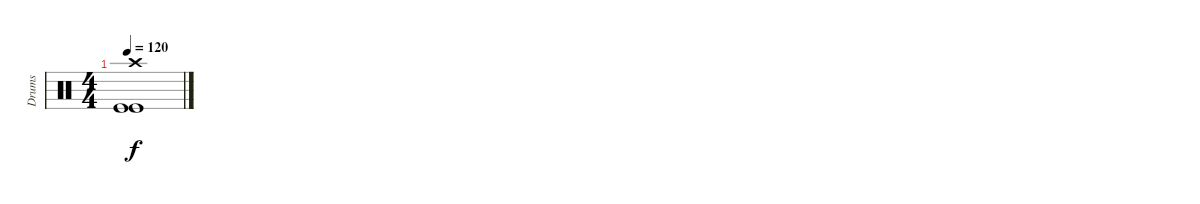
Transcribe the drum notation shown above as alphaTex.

\track ("Drums" "Drums") {instrument percussion}
\staff {score}
\articulation defaults
\ts (4 4)
\tempo 120
\clef neutral
\ks c
("Crash high (hit)" "Kick (hit)" "Kick (hit)").1{dy f}
